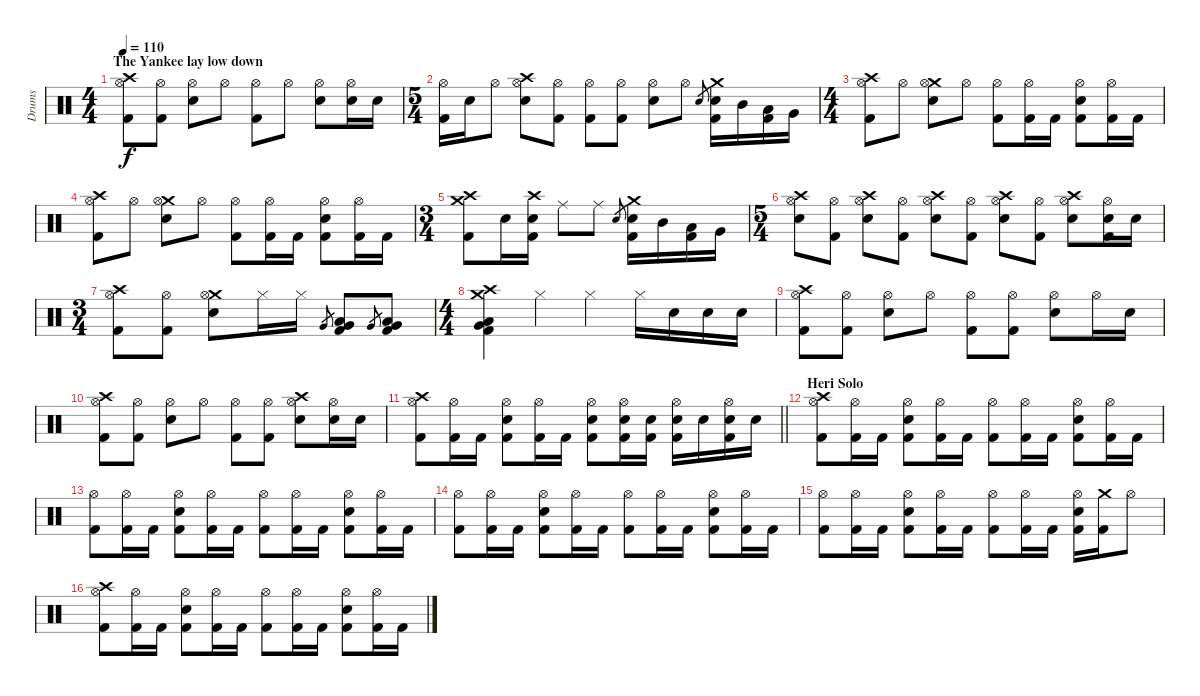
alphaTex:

\track ("Drums" "Drums") {instrument percussion}
\staff {score}
\articulation defaults
\ts (4 4)
\section ("" "The Yankee lay low down")
\tempo 110
\clef neutral
\ks c
("Crash high (hit)" "Hi-Hat (open)" "Kick (hit) 2").8{dy f} ("Hi-Hat (open)" "Kick (hit) 2").8 ("Hi-Hat (open)" "Snare (hit) 2").8 "Hi-Hat (open)".8 ("Hi-Hat (open)" "Kick (hit) 2").8 "Hi-Hat (open)".8 ("Hi-Hat (open)" "Snare (hit) 2").8 ("Hi-Hat (open)" "Snare (hit) 2").16 "Snare (hit) 2".16 |
\ts (5 4)
("Hi-Hat (open)" "Kick (hit) 2").16 "Snare (hit) 2".16 "Hi-Hat (open)".8 ("Crash high (hit)" "Hi-Hat (open)" "Snare (hit) 2").8 ("Hi-Hat (open)" "Kick (hit) 2").8 ("Hi-Hat (open)" "Kick (hit) 2").8 ("Hi-Hat (open)" "Kick (hit) 2").8 ("Hi-Hat (open)" "Snare (hit) 2").8 "Hi-Hat (open)".8 "Snare (hit) 2".8{gr} ("Crash medium (hit)" "Snare (hit) 2" "Kick (hit) 2").16 "Mid Tom (hit)".16 ("Low Tom (hit)" "Kick (hit) 2").16 "Very Low Tom (hit)".16 |
\ts (4 4)
("Crash high (hit)" "Hi-Hat (open)" "Kick (hit) 2").8 "Hi-Hat (open)".8 ("Crash medium (hit)" "Hi-Hat (open)" "Snare (hit) 2").8 "Hi-Hat (open)".8 ("Hi-Hat (open)" "Kick (hit) 2").8 ("Hi-Hat (open)" "Kick (hit) 2").16 "Kick (hit) 2".16 ("Hi-Hat (open)" "Snare (hit) 2" "Kick (hit) 2").8 ("Hi-Hat (open)" "Kick (hit) 2").16 "Kick (hit) 2".16 |
("Crash high (hit)" "Hi-Hat (open)" "Kick (hit) 2").8 "Hi-Hat (open)".8 ("Crash medium (hit)" "Hi-Hat (open)" "Snare (hit) 2").8 "Hi-Hat (open)".8 ("Hi-Hat (open)" "Kick (hit) 2").8 ("Hi-Hat (open)" "Kick (hit) 2").16 "Kick (hit) 2".16 ("Hi-Hat (open)" "Snare (hit) 2" "Kick (hit) 2").8 ("Hi-Hat (open)" "Kick (hit) 2").16 "Kick (hit) 2".16 |
\ts (3 4)
("Crash medium (hit)" "Crash high (hit)" "Kick (hit) 2").8 "Snare (hit) 2".16 ("Crash high (hit)" "Snare (hit) 2" "Kick (hit) 2").16 "Ride (middle)".8 "Ride (middle)".8 "Snare (hit) 2".8{gr} ("Crash medium (hit)" "Snare (hit) 2" "Kick (hit) 2").16 "Mid Tom (hit)".16 ("Low Tom (hit)" "Kick (hit) 2").16 "Very Low Tom (hit)".16 |
\ts (5 4)
("Crash high (hit)" "Hi-Hat (open)" "Snare (hit) 2").8 ("Hi-Hat (open)" "Kick (hit) 2").8 ("Crash high (hit)" "Hi-Hat (open)" "Snare (hit) 2").8 ("Hi-Hat (open)" "Kick (hit) 2").8 ("Crash high (hit)" "Hi-Hat (open)" "Snare (hit) 2").8 ("Hi-Hat (open)" "Kick (hit) 2").8 ("Crash high (hit)" "Hi-Hat (open)" "Snare (hit) 2").8 ("Hi-Hat (open)" "Kick (hit) 2").8 ("Crash high (hit)" "Hi-Hat (open)" "Snare (hit) 2").8 ("Hi-Hat (open)" "Snare (hit) 2" "Kick (hit) 2").16 "Snare (hit) 2".16 |
\ts (3 4)
("Crash high (hit)" "Hi-Hat (open)" "Kick (hit) 2").8 ("Hi-Hat (open)" "Kick (hit) 2").8 ("Crash medium (hit)" "Hi-Hat (open)" "Snare (hit) 2").8 "Hi-Hat (closed)".16 "Hi-Hat (closed)".16 "Very Low Tom (hit)".8{gr} ("Low Tom (hit)" "Very Low Tom (hit)" "Kick (hit) 2").8 "Very Low Tom (hit)".8{gr} ("Low Tom (hit)" "Very Low Tom (hit)" "Kick (hit) 2").8 |
\ts (4 4)
("Crash high (hit)" "Crash medium (hit)" "Low Tom (hit)" "Very Low Tom (hit)" "Kick (hit) 2").4 "Hi-Hat (closed)".4 "Hi-Hat (closed)".4 "Hi-Hat (closed)".16 "Snare (hit) 2".16 "Snare (hit) 2".16 "Snare (hit) 2".16 |
("Crash high (hit)" "Hi-Hat (open)" "Kick (hit) 2").8 ("Hi-Hat (open)" "Kick (hit) 2").8 ("Hi-Hat (open)" "Snare (hit) 2").8 "Hi-Hat (open)".8 ("Hi-Hat (open)" "Kick (hit) 2").8 ("Hi-Hat (open)" "Kick (hit) 2").8 ("Hi-Hat (open)" "Snare (hit) 2").8 "Hi-Hat (open)".16 "Snare (hit) 2".16 |
("Crash high (hit)" "Hi-Hat (open)" "Kick (hit) 2").8 ("Hi-Hat (open)" "Kick (hit) 2").8 ("Hi-Hat (open)" "Snare (hit) 2").8 "Hi-Hat (open)".8 ("Hi-Hat (open)" "Kick (hit) 2").8 ("Hi-Hat (open)" "Kick (hit) 2").8 ("Crash high (hit)" "Hi-Hat (open)" "Snare (hit) 2").8 ("Hi-Hat (open)" "Snare (hit) 2").16 "Snare (hit) 2".16 |
\barLineRight lightlight
("Crash high (hit)" "Hi-Hat (open)" "Kick (hit) 2").8 ("Hi-Hat (open)" "Kick (hit) 2").16 "Kick (hit) 2".16 ("Hi-Hat (open)" "Snare (hit) 2" "Kick (hit) 2").8 ("Hi-Hat (open)" "Kick (hit) 2").16 "Kick (hit) 2".16 ("Hi-Hat (open)" "Snare (hit) 2" "Kick (hit) 2").8 ("Hi-Hat (open)" "Snare (hit) 2" "Kick (hit) 2").16 ("Snare (hit) 2" "Kick (hit) 2").16 ("Hi-Hat (open)" "Snare (hit) 2" "Kick (hit) 2").16 "Snare (hit) 2".16 ("Hi-Hat (open)" "Snare (hit) 2" "Kick (hit) 2").16 "Snare (hit) 2".16 |
\section ("" "Heri Solo")
("Crash high (hit)" "Hi-Hat (open)" "Kick (hit) 2").8 ("Hi-Hat (open)" "Kick (hit) 2").16 "Kick (hit) 2".16 ("Hi-Hat (open)" "Snare (hit) 2" "Kick (hit) 2").8 ("Hi-Hat (open)" "Kick (hit) 2").16 "Kick (hit) 2".16 ("Hi-Hat (open)" "Kick (hit) 2").8 ("Hi-Hat (open)" "Kick (hit) 2").16 "Kick (hit) 2".16 ("Hi-Hat (open)" "Snare (hit) 2" "Kick (hit) 2").8 ("Hi-Hat (open)" "Kick (hit) 2").16 "Kick (hit) 2".16 |
("Hi-Hat (open)" "Kick (hit) 2").8 ("Hi-Hat (open)" "Kick (hit) 2").16 "Kick (hit) 2".16 ("Hi-Hat (open)" "Snare (hit) 2" "Kick (hit) 2").8 ("Hi-Hat (open)" "Kick (hit) 2").16 "Kick (hit) 2".16 ("Hi-Hat (open)" "Kick (hit) 2").8 ("Hi-Hat (open)" "Kick (hit) 2").16 "Kick (hit) 2".16 ("Hi-Hat (open)" "Snare (hit) 2" "Kick (hit) 2").8 ("Hi-Hat (open)" "Kick (hit) 2").16 "Kick (hit) 2".16 |
("Hi-Hat (open)" "Kick (hit) 2").8 ("Hi-Hat (open)" "Kick (hit) 2").16 "Kick (hit) 2".16 ("Hi-Hat (open)" "Snare (hit) 2" "Kick (hit) 2").8 ("Hi-Hat (open)" "Kick (hit) 2").16 "Kick (hit) 2".16 ("Hi-Hat (open)" "Kick (hit) 2").8 ("Hi-Hat (open)" "Kick (hit) 2").16 "Kick (hit) 2".16 ("Hi-Hat (open)" "Snare (hit) 2" "Kick (hit) 2").8 ("Hi-Hat (open)" "Kick (hit) 2").16 "Kick (hit) 2".16 |
("Hi-Hat (open)" "Kick (hit) 2").8 ("Hi-Hat (open)" "Kick (hit) 2").16 "Kick (hit) 2".16 ("Hi-Hat (open)" "Snare (hit) 2" "Kick (hit) 2").8 ("Hi-Hat (open)" "Kick (hit) 2").16 "Kick (hit) 2".16 ("Hi-Hat (open)" "Kick (hit) 2").8 ("Hi-Hat (open)" "Kick (hit) 2").16 "Kick (hit) 2".16 ("Hi-Hat (open)" "Snare (hit) 2" "Kick (hit) 2").16 ("Crash medium (hit)" "Kick (hit) 2").16 "Hi-Hat (open)".8 |
("Crash high (hit)" "Hi-Hat (open)" "Kick (hit) 2").8 ("Hi-Hat (open)" "Kick (hit) 2").16 "Kick (hit) 2".16 ("Hi-Hat (open)" "Snare (hit) 2" "Kick (hit) 2").8 ("Hi-Hat (open)" "Kick (hit) 2").16 "Kick (hit) 2".16 ("Hi-Hat (open)" "Kick (hit) 2").8 ("Hi-Hat (open)" "Kick (hit) 2").16 "Kick (hit) 2".16 ("Hi-Hat (open)" "Snare (hit) 2" "Kick (hit) 2").8 ("Hi-Hat (open)" "Kick (hit) 2").16 "Kick (hit) 2".16
